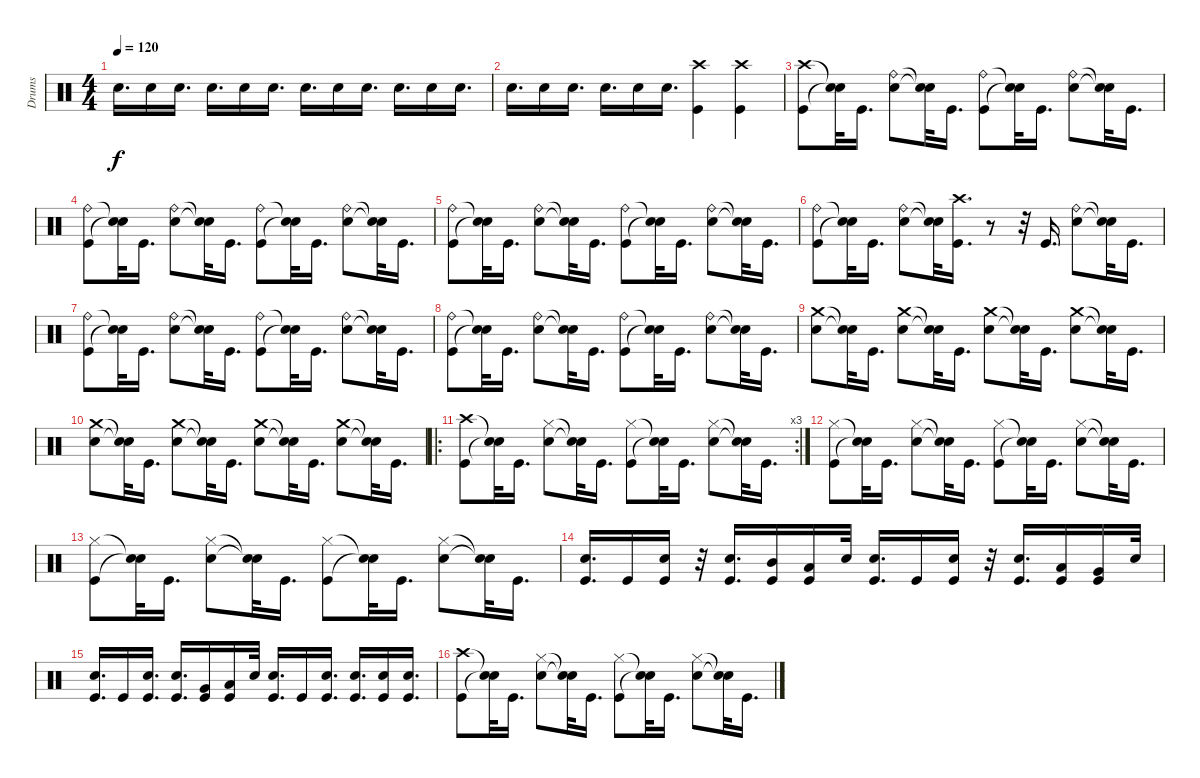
\track ("Drums" "Drums") {instrument percussion}
\staff {score}
\articulation defaults
\ts (4 4)
\tempo 120
\clef neutral
\ks c "Snare (hit) 2".16{d dy f} "Snare (hit) 2".16 "Snare (hit) 2".16{d} "Snare (hit) 2".16{d} "Snare (hit) 2".16 "Snare (hit) 2".16{d} "Snare (hit) 2".16{d} "Snare (hit) 2".16 "Snare (hit) 2".16{d} "Snare (hit) 2".16{d} "Snare (hit) 2".16 "Snare (hit) 2".16{d}
|
"Snare (hit) 2".16{d} "Snare (hit) 2".16 "Snare (hit) 2".16{d} "Snare (hit) 2".16{d} "Snare (hit) 2".16 "Snare (hit) 2".16{d} ("Crash high (hit)" "Kick (hit)").4 ("Kick (hit)" "Crash high (hit)").4 |
("Kick (hit)" "Crash high (hit)").8 ("Snare (hit)"{t} "Snare (hit)"{t}).32 "Kick (hit)".16{d} ("Snare (hit) 2" "Ride (bell)").8 ("Snare (hit)"{t} "Snare (hit)"{t}).32 "Kick (hit)".16{d} ("Ride (bell)" "Kick (hit)").8 ("Snare (hit)"{t} "Snare (hit)"{t}).32 "Kick (hit)".16{d} ("Ride (bell)" "Snare (hit) 2").8 ("Snare (hit)"{t} "Snare (hit)"{t}).32 "Kick (hit)".16{d} |
("Kick (hit)" "Ride (bell)").8 ("Snare (hit)"{t} "Snare (hit)"{t}).32 "Kick (hit)".16{d} ("Ride (bell)" "Snare (hit) 2").8 ("Snare (hit)"{t} "Snare (hit)"{t}).32 "Kick (hit)".16{d} ("Ride (bell)" "Kick (hit)").8 ("Snare (hit)"{t} "Snare (hit)"{t}).32 "Kick (hit)".16{d} ("Ride (bell)" "Snare (hit) 2").8 ("Snare (hit)"{t} "Snare (hit)"{t}).32 "Kick (hit)".16{d} |
("Ride (bell)" "Kick (hit)").8 ("Snare (hit)"{t} "Snare (hit)"{t}).32 "Kick (hit)".16{d} ("Snare (hit) 2" "Ride (bell)").8 ("Snare (hit)"{t} "Snare (hit)"{t}).32 "Kick (hit)".16{d} ("Ride (bell)" "Kick (hit)").8 ("Snare (hit)"{t} "Snare (hit)"{t}).32 "Kick (hit)".16{d} ("Ride (bell)" "Snare (hit) 2").8 ("Snare (hit)"{t} "Snare (hit)"{t}).32 "Kick (hit)".16{d} |
("Kick (hit)" "Ride (bell)").8 ("Snare (hit)"{t} "Snare (hit)"{t}).32 "Kick (hit)".16{d} ("Snare (hit) 2" "Ride (bell)").8 ("Snare (hit)"{t} "Snare (hit)"{t}).32 ("Crash high (hit)" "Kick (hit)").16{d} r.8 r.32 "Kick (hit)".16{d} ("Snare (hit) 2" "Ride (bell)").8 ("Snare (hit)"{t} "Snare (hit)"{t}).32 "Kick (hit)".16{d} |
("Ride (bell)" "Kick (hit)").8 ("Snare (hit)"{t} "Snare (hit)"{t}).32 "Kick (hit)".16{d} ("Ride (bell)" "Snare (hit) 2").8 ("Snare (hit)"{t} "Snare (hit)"{t}).32 "Kick (hit)".16{d} ("Kick (hit)" "Ride (bell)").8 ("Snare (hit)"{t} "Snare (hit)"{t}).32 "Kick (hit)".16{d} ("Snare (hit) 2" "Ride (bell)").8 ("Snare (hit)"{t} "Snare (hit)"{t}).32 "Kick (hit)".16{d} |
("Ride (bell)" "Kick (hit)").8 ("Snare (hit)"{t} "Snare (hit)"{t}).32 "Kick (hit)".16{d} ("Ride (bell)" "Snare (hit) 2").8 ("Snare (hit)"{t} "Snare (hit)"{t}).32 "Kick (hit)".16{d} ("Ride (bell)" "Kick (hit)").8 ("Snare (hit)"{t} "Snare (hit)"{t}).32 "Kick (hit)".16{d} ("Snare (hit) 2" "Ride (bell)").8 ("Snare (hit)"{t} "Snare (hit)"{t}).32 "Kick (hit)".16{d} |
("Snare (hit) 2" "Crash medium (hit)").8 ("Snare (hit)"{t} "Snare (hit)"{t}).32 "Kick (hit)".16{d} ("Crash medium (hit)" "Snare (hit) 2").8 ("Snare (hit)"{t} "Snare (hit)"{t}).32 "Kick (hit)".16{d} ("Snare (hit) 2" "Crash medium (hit)").8 ("Snare (hit)"{t} "Snare (hit)"{t}).32 "Kick (hit)".16{d} ("Snare (hit) 2" "Crash medium (hit)").8 ("Snare (hit)"{t} "Snare (hit)"{t}).32 "Kick (hit)".16{d} |
("Snare (hit) 2" "Crash medium (hit)").8 ("Snare (hit)"{t} "Snare (hit)"{t}).32 "Kick (hit)".16{d} ("Snare (hit) 2" "Crash medium (hit)").8 ("Snare (hit)"{t} "Snare (hit)"{t}).32 "Kick (hit)".16{d} ("Snare (hit) 2" "Crash medium (hit)").8 ("Snare (hit)"{t} "Snare (hit)"{t}).32 "Kick (hit)".16{d} ("Snare (hit) 2" "Crash medium (hit)").8 ("Snare (hit)"{t} "Snare (hit)"{t}).32 "Kick (hit)".16{d} |
\ro
\rc 3
("Crash high (hit)" "Kick (hit)").8 ("Snare (hit)"{t} "Snare (hit)"{t}).32 "Kick (hit)".16{d} ("Snare (hit) 2" "Hi-Hat (closed)").8 ("Snare (hit)"{t} "Snare (hit)"{t}).32 "Kick (hit)".16{d} ("Hi-Hat (closed)" "Kick (hit)").8 ("Snare (hit)"{t} "Snare (hit)"{t}).32 "Kick (hit)".16{d} ("Snare (hit) 2" "Hi-Hat (closed)").8 ("Snare (hit)"{t} "Snare (hit)"{t}).32 "Kick (hit)".16{d} |
("Hi-Hat (closed)" "Kick (hit)").8 ("Snare (hit)"{t} "Snare (hit)"{t}).32 "Kick (hit)".16{d} ("Hi-Hat (closed)" "Snare (hit) 2").8 ("Snare (hit)"{t} "Snare (hit)"{t}).32 "Kick (hit)".16{d} ("Hi-Hat (closed)" "Kick (hit)").8 ("Snare (hit)"{t} "Snare (hit)"{t}).32 "Kick (hit)".16{d} ("Hi-Hat (closed)" "Snare (hit) 2").8 ("Snare (hit)"{t} "Snare (hit)"{t}).32 "Kick (hit)".16{d} |
("Hi-Hat (closed)" "Kick (hit)").8 ("Snare (hit)"{t} "Snare (hit)"{t}).32 "Kick (hit)".16{d} ("Hi-Hat (closed)" "Snare (hit) 2").8 ("Snare (hit)"{t} "Snare (hit)"{t}).32 "Kick (hit)".16{d} ("Kick (hit)" "Hi-Hat (closed)").8 ("Snare (hit)"{t} "Snare (hit)"{t}).32 "Kick (hit)".16{d} ("Hi-Hat (closed)" "Snare (hit) 2").8 ("Snare (hit)"{t} "Snare (hit)"{t}).32 "Kick (hit)".16{d} |
("Kick (hit)" "Snare (hit) 2").16{d} "Kick (hit)".16 ("Snare (hit) 2" "Kick (hit)").16 r.32 ("Snare (hit) 2" "Kick (hit)").16{d} ("Mid Tom (hit)" "Kick (hit)").16 ("Kick (hit)" "Low Tom (hit)").16 "Snare (hit) 2".32 ("Kick (hit)" "Snare (hit) 2").16{d} "Kick (hit)".16 ("Kick (hit)" "Snare (hit) 2").16 r.32 ("Kick (hit)" "Snare (hit) 2").16{d} ("Kick (hit)" "Low Tom (hit)").16 ("Kick (hit)" "Very Low Tom (hit)").16 "Snare (hit) 2".32 |
("Snare (hit) 2" "Kick (hit)").16{d} "Kick (hit)".16 ("Snare (hit) 2" "Kick (hit)").16{d} ("Snare (hit) 2" "Kick (hit)").16{d} ("Kick (hit)" "Very Low Tom (hit)").16 ("Low Floor Tom (hit)" "Kick (hit)").16 "Snare (hit) 2".32 ("Kick (hit)" "Snare (hit) 2").16{d} "Kick (hit)".16 ("Snare (hit) 2" "Kick (hit)").16{d} ("Kick (hit)" "Snare (hit) 2").16{d} ("Kick (hit)" "Snare (hit) 2").16 ("Kick (hit)" "Snare (hit) 2").16{d} |
("Crash high (hit)" "Kick (hit)").8 ("Snare (hit)"{t} "Snare (hit)"{t}).32 "Kick (hit)".16{d} ("Hi-Hat (closed)" "Snare (hit) 2").8 ("Snare (hit)"{t} "Snare (hit)"{t}).32 "Kick (hit)".16{d} ("Hi-Hat (closed)" "Kick (hit)").8 ("Snare (hit)"{t} "Snare (hit)"{t}).32 "Kick (hit)".16{d} ("Snare (hit) 2" "Hi-Hat (closed)").8 ("Snare (hit)"{t} "Snare (hit)"{t}).32 "Kick (hit)".16{d}
